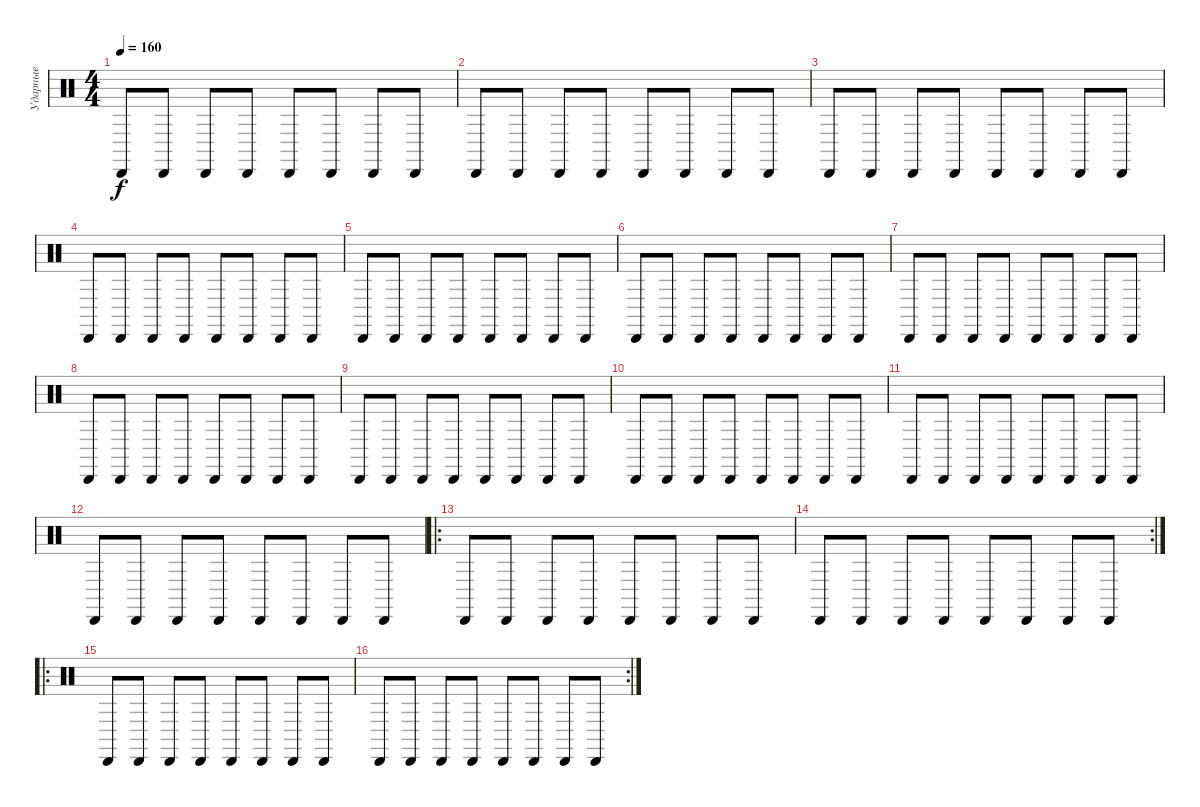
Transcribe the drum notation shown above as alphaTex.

\track ("Ударные" "Ударные") {instrument percussion}
\staff {score}
\articulation defaults
\ts (4 4)
\tempo 160
\clef neutral
\ks c "Cabasa (hit)".8{dy f} "Cabasa (hit)".8 "Cabasa (hit)".8 "Cabasa (hit)".8 "Cabasa (hit)".8 "Cabasa (hit)".8 "Cabasa (hit)".8 "Cabasa (hit)".8
|
"Cabasa (hit)".8 "Cabasa (hit)".8 "Cabasa (hit)".8 "Cabasa (hit)".8 "Cabasa (hit)".8 "Cabasa (hit)".8 "Cabasa (hit)".8 "Cabasa (hit)".8 |
"Cabasa (hit)".8 "Cabasa (hit)".8 "Cabasa (hit)".8 "Cabasa (hit)".8 "Cabasa (hit)".8 "Cabasa (hit)".8 "Cabasa (hit)".8 "Cabasa (hit)".8 |
"Cabasa (hit)".8 "Cabasa (hit)".8 "Cabasa (hit)".8 "Cabasa (hit)".8 "Cabasa (hit)".8 "Cabasa (hit)".8 "Cabasa (hit)".8 "Cabasa (hit)".8 |
"Cabasa (hit)".8 "Cabasa (hit)".8 "Cabasa (hit)".8 "Cabasa (hit)".8 "Cabasa (hit)".8 "Cabasa (hit)".8 "Cabasa (hit)".8 "Cabasa (hit)".8 |
"Cabasa (hit)".8 "Cabasa (hit)".8 "Cabasa (hit)".8 "Cabasa (hit)".8 "Cabasa (hit)".8 "Cabasa (hit)".8 "Cabasa (hit)".8 "Cabasa (hit)".8 |
"Cabasa (hit)".8 "Cabasa (hit)".8 "Cabasa (hit)".8 "Cabasa (hit)".8 "Cabasa (hit)".8 "Cabasa (hit)".8 "Cabasa (hit)".8 "Cabasa (hit)".8 |
"Cabasa (hit)".8 "Cabasa (hit)".8 "Cabasa (hit)".8 "Cabasa (hit)".8 "Cabasa (hit)".8 "Cabasa (hit)".8 "Cabasa (hit)".8 "Cabasa (hit)".8 |
"Cabasa (hit)".8 "Cabasa (hit)".8 "Cabasa (hit)".8 "Cabasa (hit)".8 "Cabasa (hit)".8 "Cabasa (hit)".8 "Cabasa (hit)".8 "Cabasa (hit)".8 |
"Cabasa (hit)".8 "Cabasa (hit)".8 "Cabasa (hit)".8 "Cabasa (hit)".8 "Cabasa (hit)".8 "Cabasa (hit)".8 "Cabasa (hit)".8 "Cabasa (hit)".8 |
"Cabasa (hit)".8 "Cabasa (hit)".8 "Cabasa (hit)".8 "Cabasa (hit)".8 "Cabasa (hit)".8 "Cabasa (hit)".8 "Cabasa (hit)".8 "Cabasa (hit)".8 |
"Cabasa (hit)".8 "Cabasa (hit)".8 "Cabasa (hit)".8 "Cabasa (hit)".8 "Cabasa (hit)".8 "Cabasa (hit)".8 "Cabasa (hit)".8 "Cabasa (hit)".8 |
\ro "Cabasa (hit)".8 "Cabasa (hit)".8 "Cabasa (hit)".8 "Cabasa (hit)".8 "Cabasa (hit)".8 "Cabasa (hit)".8 "Cabasa (hit)".8 "Cabasa (hit)".8
|
\rc 2 "Cabasa (hit)".8 "Cabasa (hit)".8 "Cabasa (hit)".8 "Cabasa (hit)".8 "Cabasa (hit)".8 "Cabasa (hit)".8 "Cabasa (hit)".8 "Cabasa (hit)".8
|
\ro "Cabasa (hit)".8 "Cabasa (hit)".8 "Cabasa (hit)".8 "Cabasa (hit)".8 "Cabasa (hit)".8 "Cabasa (hit)".8 "Cabasa (hit)".8 "Cabasa (hit)".8
|
\rc 2 "Cabasa (hit)".8 "Cabasa (hit)".8 "Cabasa (hit)".8 "Cabasa (hit)".8 "Cabasa (hit)".8 "Cabasa (hit)".8 "Cabasa (hit)".8 "Cabasa (hit)".8
